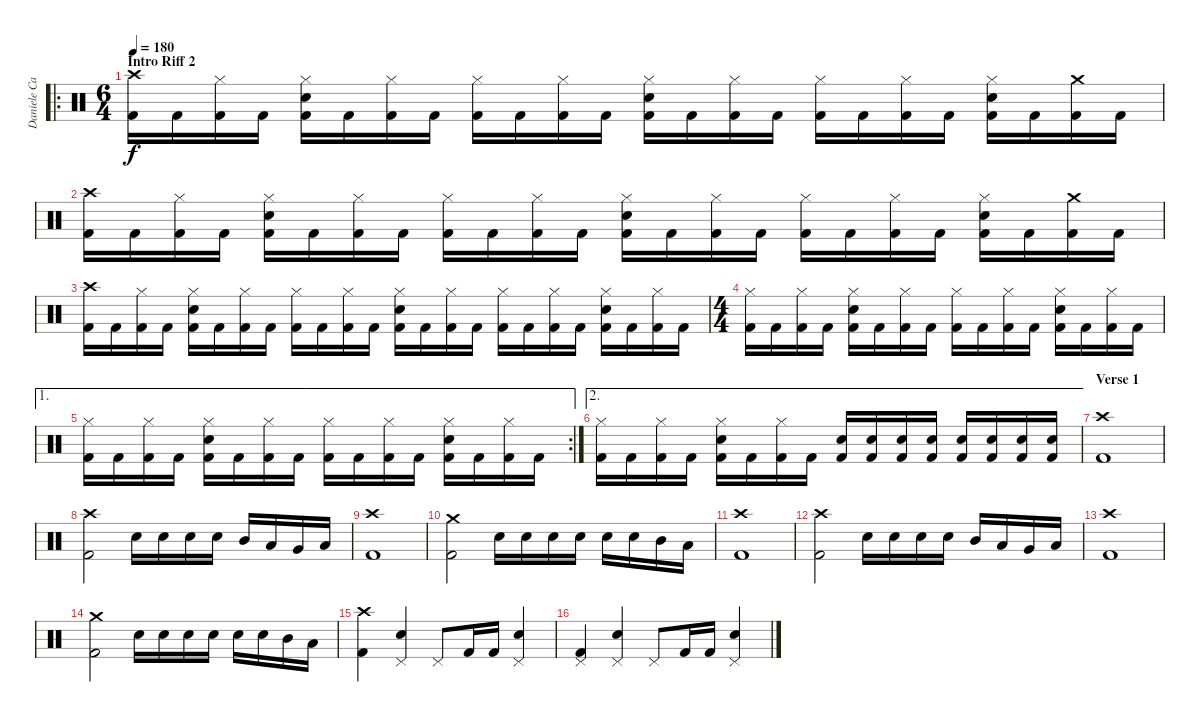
\track ("Daniele Carbonera " "Daniele Ca") {instrument percussion}
\staff {score}
\articulation defaults
\ro
\ts (6 4)
\section ("" "Intro Riff 2")
\tempo 180
\clef neutral
\ks c
("Crash high (hit)" "Kick (hit) 2").16{dy f} "Kick (hit) 2".16 ("Hi-Hat (closed)" "Kick (hit) 2").16 "Kick (hit) 2".16 ("Hi-Hat (closed)" "Electric Snare (hit)" "Kick (hit) 2").16 "Kick (hit) 2".16 ("Hi-Hat (closed)" "Kick (hit) 2").16 "Kick (hit) 2".16 ("Hi-Hat (closed)" "Kick (hit) 2").16 "Kick (hit) 2".16 ("Hi-Hat (closed)" "Kick (hit) 2").16 "Kick (hit) 2".16 ("Hi-Hat (closed)" "Electric Snare (hit)" "Kick (hit) 2").16 "Kick (hit) 2".16 ("Hi-Hat (closed)" "Kick (hit) 2").16 "Kick (hit) 2".16 ("Hi-Hat (closed)" "Kick (hit) 2").16 "Kick (hit) 2".16 ("Hi-Hat (closed)" "Kick (hit) 2").16 "Kick (hit) 2".16 ("Hi-Hat (closed)" "Electric Snare (hit)" "Kick (hit) 2").16 "Kick (hit) 2".16 ("Crash medium (hit)" "Kick (hit) 2").16 "Kick (hit) 2".16 |
("Crash high (hit)" "Kick (hit) 2").16 "Kick (hit) 2".16 ("Hi-Hat (closed)" "Kick (hit) 2").16 "Kick (hit) 2".16 ("Hi-Hat (closed)" "Electric Snare (hit)" "Kick (hit) 2").16 "Kick (hit) 2".16 ("Hi-Hat (closed)" "Kick (hit) 2").16 "Kick (hit) 2".16 ("Hi-Hat (closed)" "Kick (hit) 2").16 "Kick (hit) 2".16 ("Hi-Hat (closed)" "Kick (hit) 2").16 "Kick (hit) 2".16 ("Hi-Hat (closed)" "Electric Snare (hit)" "Kick (hit) 2").16 "Kick (hit) 2".16 ("Hi-Hat (closed)" "Kick (hit) 2").16 "Kick (hit) 2".16 ("Hi-Hat (closed)" "Kick (hit) 2").16 "Kick (hit) 2".16 ("Hi-Hat (closed)" "Kick (hit) 2").16 "Kick (hit) 2".16 ("Hi-Hat (closed)" "Electric Snare (hit)" "Kick (hit) 2").16 "Kick (hit) 2".16 ("Crash medium (hit)" "Kick (hit) 2").16 "Kick (hit) 2".16 |
("Crash high (hit)" "Kick (hit) 2").16 "Kick (hit) 2".16 ("Hi-Hat (closed)" "Kick (hit) 2").16 "Kick (hit) 2".16 ("Hi-Hat (closed)" "Electric Snare (hit)" "Kick (hit) 2").16 "Kick (hit) 2".16 ("Hi-Hat (closed)" "Kick (hit) 2").16 "Kick (hit) 2".16 ("Hi-Hat (closed)" "Kick (hit) 2").16 "Kick (hit) 2".16 ("Hi-Hat (closed)" "Kick (hit) 2").16 "Kick (hit) 2".16 ("Hi-Hat (closed)" "Electric Snare (hit)" "Kick (hit) 2").16 "Kick (hit) 2".16 ("Hi-Hat (closed)" "Kick (hit) 2").16 "Kick (hit) 2".16 ("Hi-Hat (closed)" "Kick (hit) 2").16 "Kick (hit) 2".16 ("Hi-Hat (closed)" "Kick (hit) 2").16 "Kick (hit) 2".16 ("Hi-Hat (closed)" "Electric Snare (hit)" "Kick (hit) 2").16 "Kick (hit) 2".16 ("Hi-Hat (closed)" "Kick (hit) 2").16 "Kick (hit) 2".16 |
\ts (4 4)
("Hi-Hat (closed)" "Kick (hit) 2").16 "Kick (hit) 2".16 ("Hi-Hat (closed)" "Kick (hit) 2").16 "Kick (hit) 2".16 ("Hi-Hat (closed)" "Electric Snare (hit)" "Kick (hit) 2").16 "Kick (hit) 2".16 ("Hi-Hat (closed)" "Kick (hit) 2").16 "Kick (hit) 2".16 ("Hi-Hat (closed)" "Kick (hit) 2").16 "Kick (hit) 2".16 ("Hi-Hat (closed)" "Kick (hit) 2").16 "Kick (hit) 2".16 ("Hi-Hat (closed)" "Electric Snare (hit)" "Kick (hit) 2").16 "Kick (hit) 2".16 ("Hi-Hat (closed)" "Kick (hit) 2").16 "Kick (hit) 2".16 |
\ae 1
\rc 2
("Hi-Hat (closed)" "Kick (hit) 2").16 "Kick (hit) 2".16 ("Hi-Hat (closed)" "Kick (hit) 2").16 "Kick (hit) 2".16 ("Hi-Hat (closed)" "Electric Snare (hit)" "Kick (hit) 2").16 "Kick (hit) 2".16 ("Hi-Hat (closed)" "Kick (hit) 2").16 "Kick (hit) 2".16 ("Hi-Hat (closed)" "Kick (hit) 2").16 "Kick (hit) 2".16 ("Hi-Hat (closed)" "Kick (hit) 2").16 "Kick (hit) 2".16 ("Hi-Hat (closed)" "Electric Snare (hit)" "Kick (hit) 2").16 "Kick (hit) 2".16 ("Hi-Hat (closed)" "Kick (hit) 2").16 "Kick (hit) 2".16 |
\ae 2
("Hi-Hat (closed)" "Kick (hit) 2").16 "Kick (hit) 2".16 ("Hi-Hat (closed)" "Kick (hit) 2").16 "Kick (hit) 2".16 ("Hi-Hat (closed)" "Electric Snare (hit)" "Kick (hit) 2").16 "Kick (hit) 2".16 ("Hi-Hat (closed)" "Kick (hit) 2").16 "Kick (hit) 2".16 ("Electric Snare (hit)" "Kick (hit) 2").16 ("Electric Snare (hit)" "Kick (hit) 2").16 ("Electric Snare (hit)" "Kick (hit) 2").16 ("Electric Snare (hit)" "Kick (hit) 2").16 ("Electric Snare (hit)" "Kick (hit) 2").16 ("Electric Snare (hit)" "Kick (hit) 2").16 ("Electric Snare (hit)" "Kick (hit) 2").16 ("Electric Snare (hit)" "Kick (hit) 2").16 |
\section ("" "Verse 1")
("Crash high (hit)" "Kick (hit) 2").1 |
("Crash high (hit)" "Kick (hit) 2").2 "Electric Snare (hit)".16 "Electric Snare (hit)".16 "Electric Snare (hit)".16 "Electric Snare (hit)".16 "Mid Tom (hit)".16 "Low Tom (hit)".16 "Very Low Tom (hit)".16 "Low Floor Tom (hit)".16 |
("Crash high (hit)" "Kick (hit) 2").1 |
("Crash medium (hit)" "Kick (hit) 2").2 "Snare (hit) 2".16 "Snare (hit) 2".16 "Snare (hit) 2".16 "Snare (hit) 2".16 "Snare (hit) 2".16 "Snare (hit) 2".16 "Mid Tom (hit)".16 "Low Tom (hit)".16 |
("Crash high (hit)" "Kick (hit) 2").1 |
("Crash high (hit)" "Kick (hit) 2").2 "Electric Snare (hit)".16 "Electric Snare (hit)".16 "Electric Snare (hit)".16 "Electric Snare (hit)".16 "Mid Tom (hit)".16 "Low Tom (hit)".16 "Very Low Tom (hit)".16 "Low Floor Tom (hit)".16 |
("Crash high (hit)" "Kick (hit) 2").1 |
("Crash medium (hit)" "Kick (hit) 2").2 "Electric Snare (hit)".16 "Electric Snare (hit)".16 "Electric Snare (hit)".16 "Electric Snare (hit)".16 "Electric Snare (hit)".16 "Electric Snare (hit)".16 "Mid Tom (hit)".16 "Low Tom (hit)".16 |
("Crash high (hit)" "Kick (hit) 2").4 ("Pedal Hi-Hat (hit)" "Electric Snare (hit)").4 "Pedal Hi-Hat (hit)".8 "Kick (hit) 2".16 "Kick (hit) 2".16 ("Pedal Hi-Hat (hit)" "Electric Snare (hit)").4 |
("Pedal Hi-Hat (hit)" "Kick (hit) 2").4 ("Pedal Hi-Hat (hit)" "Electric Snare (hit)").4 "Pedal Hi-Hat (hit)".8 "Kick (hit) 2".16 "Kick (hit) 2".16 ("Pedal Hi-Hat (hit)" "Electric Snare (hit)").4
